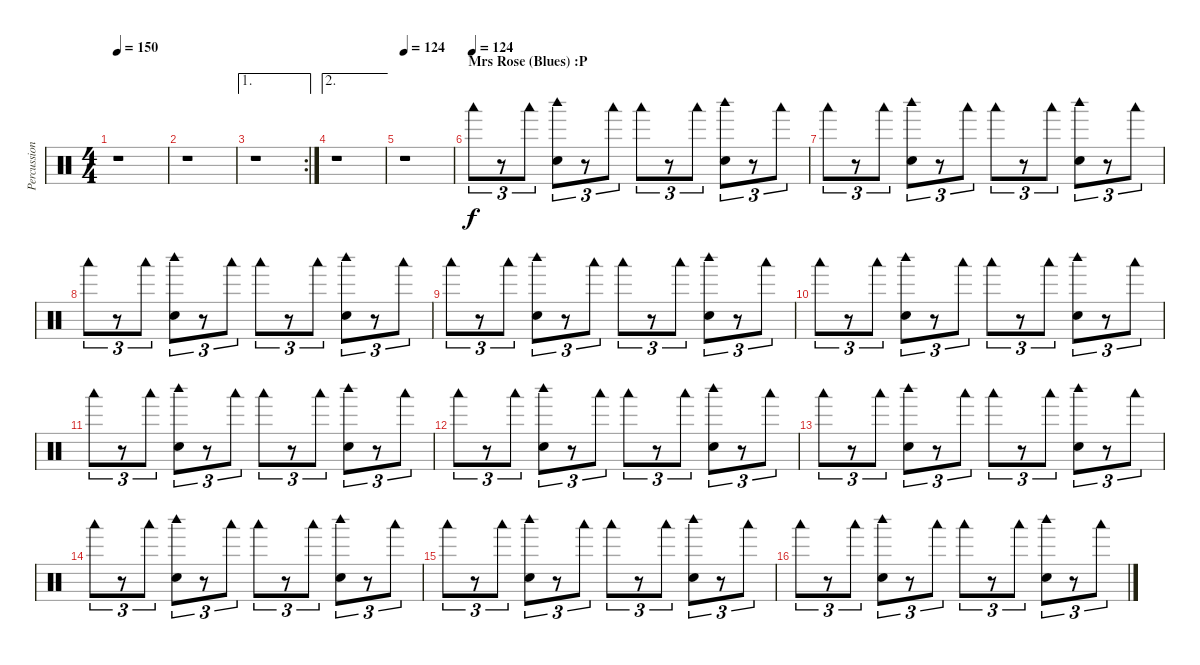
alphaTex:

\track ("Percussion" "Percussion") {instrument percussion}
\staff {score}
\articulation defaults
\ts (4 4)
\tempo 150
\clef neutral
\ks c
r.1{dy f} |
r.1 |
\ae 1
\rc 2
r.1 |
\ae 2
r.1 |
\tempo 124
r.1 |
\section ("" "Mrs Rose (Blues) :P")
\tempo (124)
"Woodblock low (hit)".8{tu (3 2)} r.8{tu (3 2)} "Woodblock low (hit)".8{tu (3 2)} ("Woodblock high (hit)" "Snare (hit) 2").8{tu (3 2)} r.8{tu (3 2)} "Woodblock low (hit)".8{tu (3 2)} "Woodblock low (hit)".8{tu (3 2)} r.8{tu (3 2)} "Woodblock low (hit)".8{tu (3 2)} ("Woodblock high (hit)" "Snare (hit) 2").8{tu (3 2)} r.8{tu (3 2)} "Woodblock low (hit)".8{tu (3 2)} |
"Woodblock low (hit)".8{tu (3 2)} r.8{tu (3 2)} "Woodblock low (hit)".8{tu (3 2)} ("Woodblock high (hit)" "Snare (hit) 2").8{tu (3 2)} r.8{tu (3 2)} "Woodblock low (hit)".8{tu (3 2)} "Woodblock low (hit)".8{tu (3 2)} r.8{tu (3 2)} "Woodblock low (hit)".8{tu (3 2)} ("Woodblock high (hit)" "Snare (hit) 2").8{tu (3 2)} r.8{tu (3 2)} "Woodblock low (hit)".8{tu (3 2)} |
"Woodblock low (hit)".8{tu (3 2)} r.8{tu (3 2)} "Woodblock low (hit)".8{tu (3 2)} ("Woodblock high (hit)" "Snare (hit) 2").8{tu (3 2)} r.8{tu (3 2)} "Woodblock low (hit)".8{tu (3 2)} "Woodblock low (hit)".8{tu (3 2)} r.8{tu (3 2)} "Woodblock low (hit)".8{tu (3 2)} ("Woodblock high (hit)" "Snare (hit) 2").8{tu (3 2)} r.8{tu (3 2)} "Woodblock low (hit)".8{tu (3 2)} |
"Woodblock low (hit)".8{tu (3 2)} r.8{tu (3 2)} "Woodblock low (hit)".8{tu (3 2)} ("Woodblock high (hit)" "Snare (hit) 2").8{tu (3 2)} r.8{tu (3 2)} "Woodblock low (hit)".8{tu (3 2)} "Woodblock low (hit)".8{tu (3 2)} r.8{tu (3 2)} "Woodblock low (hit)".8{tu (3 2)} ("Woodblock high (hit)" "Snare (hit) 2").8{tu (3 2)} r.8{tu (3 2)} "Woodblock low (hit)".8{tu (3 2)} |
"Woodblock low (hit)".8{tu (3 2)} r.8{tu (3 2)} "Woodblock low (hit)".8{tu (3 2)} ("Woodblock high (hit)" "Snare (hit) 2").8{tu (3 2)} r.8{tu (3 2)} "Woodblock low (hit)".8{tu (3 2)} "Woodblock low (hit)".8{tu (3 2)} r.8{tu (3 2)} "Woodblock low (hit)".8{tu (3 2)} ("Woodblock high (hit)" "Snare (hit) 2").8{tu (3 2)} r.8{tu (3 2)} "Woodblock low (hit)".8{tu (3 2)} |
"Woodblock low (hit)".8{tu (3 2)} r.8{tu (3 2)} "Woodblock low (hit)".8{tu (3 2)} ("Woodblock high (hit)" "Snare (hit) 2").8{tu (3 2)} r.8{tu (3 2)} "Woodblock low (hit)".8{tu (3 2)} "Woodblock low (hit)".8{tu (3 2)} r.8{tu (3 2)} "Woodblock low (hit)".8{tu (3 2)} ("Woodblock high (hit)" "Snare (hit) 2").8{tu (3 2)} r.8{tu (3 2)} "Woodblock low (hit)".8{tu (3 2)} |
"Woodblock low (hit)".8{tu (3 2)} r.8{tu (3 2)} "Woodblock low (hit)".8{tu (3 2)} ("Woodblock high (hit)" "Snare (hit) 2").8{tu (3 2)} r.8{tu (3 2)} "Woodblock low (hit)".8{tu (3 2)} "Woodblock low (hit)".8{tu (3 2)} r.8{tu (3 2)} "Woodblock low (hit)".8{tu (3 2)} ("Woodblock high (hit)" "Snare (hit) 2").8{tu (3 2)} r.8{tu (3 2)} "Woodblock low (hit)".8{tu (3 2)} |
"Woodblock low (hit)".8{tu (3 2)} r.8{tu (3 2)} "Woodblock low (hit)".8{tu (3 2)} ("Woodblock high (hit)" "Snare (hit) 2").8{tu (3 2)} r.8{tu (3 2)} "Woodblock low (hit)".8{tu (3 2)} "Woodblock low (hit)".8{tu (3 2)} r.8{tu (3 2)} "Woodblock low (hit)".8{tu (3 2)} ("Woodblock high (hit)" "Snare (hit) 2").8{tu (3 2)} r.8{tu (3 2)} "Woodblock low (hit)".8{tu (3 2)} |
"Woodblock low (hit)".8{tu (3 2)} r.8{tu (3 2)} "Woodblock low (hit)".8{tu (3 2)} ("Woodblock high (hit)" "Snare (hit) 2").8{tu (3 2)} r.8{tu (3 2)} "Woodblock low (hit)".8{tu (3 2)} "Woodblock low (hit)".8{tu (3 2)} r.8{tu (3 2)} "Woodblock low (hit)".8{tu (3 2)} ("Woodblock high (hit)" "Snare (hit) 2").8{tu (3 2)} r.8{tu (3 2)} "Woodblock low (hit)".8{tu (3 2)} |
"Woodblock low (hit)".8{tu (3 2)} r.8{tu (3 2)} "Woodblock low (hit)".8{tu (3 2)} ("Woodblock high (hit)" "Snare (hit) 2").8{tu (3 2)} r.8{tu (3 2)} "Woodblock low (hit)".8{tu (3 2)} "Woodblock low (hit)".8{tu (3 2)} r.8{tu (3 2)} "Woodblock low (hit)".8{tu (3 2)} ("Woodblock high (hit)" "Snare (hit) 2").8{tu (3 2)} r.8{tu (3 2)} "Woodblock low (hit)".8{tu (3 2)} |
"Woodblock low (hit)".8{tu (3 2)} r.8{tu (3 2)} "Woodblock low (hit)".8{tu (3 2)} ("Woodblock high (hit)" "Snare (hit) 2").8{tu (3 2)} r.8{tu (3 2)} "Woodblock low (hit)".8{tu (3 2)} "Woodblock low (hit)".8{tu (3 2)} r.8{tu (3 2)} "Woodblock low (hit)".8{tu (3 2)} ("Woodblock high (hit)" "Snare (hit) 2").8{tu (3 2)} r.8{tu (3 2)} "Woodblock low (hit)".8{tu (3 2)}
